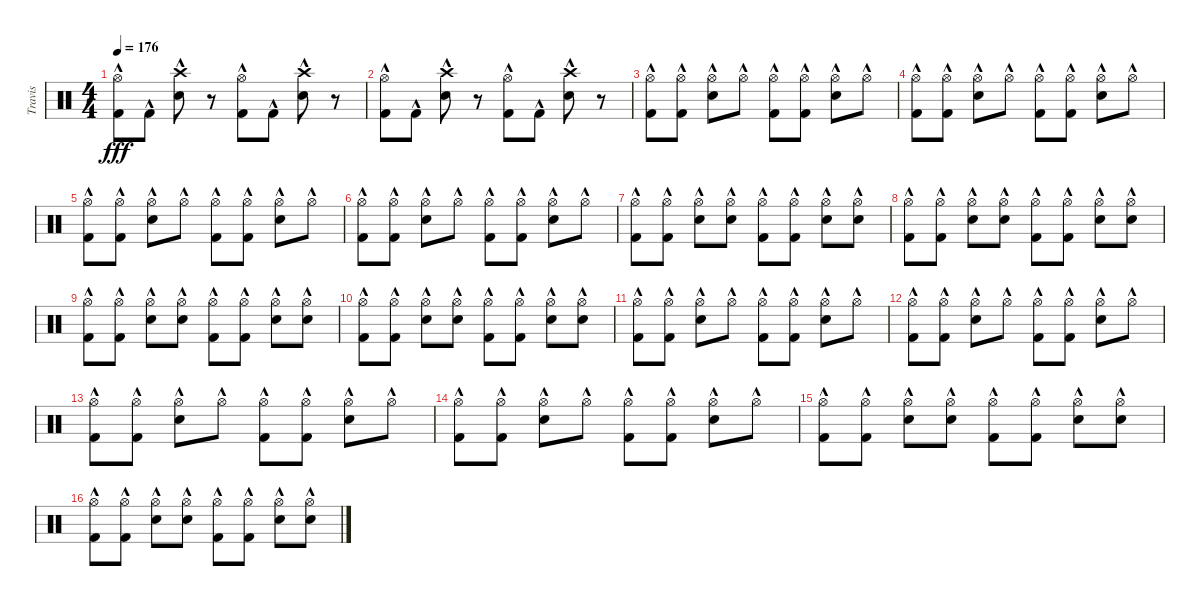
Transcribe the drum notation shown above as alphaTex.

\track ("Travis" "Travis") {instrument percussion}
\staff {score}
\articulation defaults
\ts (4 4)
\tempo 176
\clef neutral
\ks c
("Kick (hit) 2"{hac} "Hi-Hat (open)"{hac}).8{dy fff} "Kick (hit) 2"{hac}.8 ("Snare (hit) 2"{hac} "Crash high (hit)"{hac}).8 r.8 ("Kick (hit) 2"{hac} "Hi-Hat (open)"{hac}).8 "Kick (hit) 2"{hac}.8 ("Snare (hit) 2"{hac} "Crash high (hit)"{hac}).8 r.8 |
("Kick (hit) 2"{hac} "Hi-Hat (open)"{hac}).8 "Kick (hit) 2"{hac}.8 ("Snare (hit) 2"{hac} "Crash high (hit)"{hac}).8 r.8 ("Kick (hit) 2"{hac} "Hi-Hat (open)"{hac}).8 "Kick (hit) 2"{hac}.8 ("Snare (hit) 2"{hac} "Crash high (hit)"{hac}).8 r.8 |
("Kick (hit) 2"{hac} "Hi-Hat (open)"{hac}).8 ("Kick (hit) 2"{hac} "Hi-Hat (open)"{hac}).8 ("Snare (hit) 2"{hac} "Hi-Hat (open)"{hac}).8 "Hi-Hat (open)"{hac}.8 ("Kick (hit) 2"{hac} "Hi-Hat (open)"{hac}).8 ("Kick (hit) 2"{hac} "Hi-Hat (open)"{hac}).8 ("Snare (hit) 2"{hac} "Hi-Hat (open)"{hac}).8 "Hi-Hat (open)"{hac}.8 |
("Kick (hit) 2"{hac} "Hi-Hat (open)"{hac}).8 ("Kick (hit) 2"{hac} "Hi-Hat (open)"{hac}).8 ("Snare (hit) 2"{hac} "Hi-Hat (open)"{hac}).8 "Hi-Hat (open)"{hac}.8 ("Kick (hit) 2"{hac} "Hi-Hat (open)"{hac}).8 ("Kick (hit) 2"{hac} "Hi-Hat (open)"{hac}).8 ("Snare (hit) 2"{hac} "Hi-Hat (open)"{hac}).8 "Hi-Hat (open)"{hac}.8 |
("Kick (hit) 2"{hac} "Hi-Hat (open)"{hac}).8 ("Kick (hit) 2"{hac} "Hi-Hat (open)"{hac}).8 ("Snare (hit) 2"{hac} "Hi-Hat (open)"{hac}).8 "Hi-Hat (open)"{hac}.8 ("Kick (hit) 2"{hac} "Hi-Hat (open)"{hac}).8 ("Kick (hit) 2"{hac} "Hi-Hat (open)"{hac}).8 ("Snare (hit) 2"{hac} "Hi-Hat (open)"{hac}).8 "Hi-Hat (open)"{hac}.8 |
("Kick (hit) 2"{hac} "Hi-Hat (open)"{hac}).8 ("Kick (hit) 2"{hac} "Hi-Hat (open)"{hac}).8 ("Snare (hit) 2"{hac} "Hi-Hat (open)"{hac}).8 "Hi-Hat (open)"{hac}.8 ("Kick (hit) 2"{hac} "Hi-Hat (open)"{hac}).8 ("Kick (hit) 2"{hac} "Hi-Hat (open)"{hac}).8 ("Snare (hit) 2"{hac} "Hi-Hat (open)"{hac}).8 "Hi-Hat (open)"{hac}.8 |
("Kick (hit) 2"{hac} "Hi-Hat (open)"{hac}).8 ("Kick (hit) 2"{hac} "Hi-Hat (open)"{hac}).8 ("Snare (hit) 2"{hac} "Hi-Hat (open)"{hac}).8 ("Snare (hit) 2"{hac} "Hi-Hat (open)"{hac}).8 ("Kick (hit) 2"{hac} "Hi-Hat (open)"{hac}).8 ("Kick (hit) 2"{hac} "Hi-Hat (open)"{hac}).8 ("Snare (hit) 2"{hac} "Hi-Hat (open)"{hac}).8 ("Snare (hit) 2"{hac} "Hi-Hat (open)"{hac}).8 |
("Kick (hit) 2"{hac} "Hi-Hat (open)"{hac}).8 ("Kick (hit) 2"{hac} "Hi-Hat (open)"{hac}).8 ("Snare (hit) 2"{hac} "Hi-Hat (open)"{hac}).8 ("Snare (hit) 2"{hac} "Hi-Hat (open)"{hac}).8 ("Kick (hit) 2"{hac} "Hi-Hat (open)"{hac}).8 ("Kick (hit) 2"{hac} "Hi-Hat (open)"{hac}).8 ("Snare (hit) 2"{hac} "Hi-Hat (open)"{hac}).8 ("Snare (hit) 2"{hac} "Hi-Hat (open)"{hac}).8 |
("Kick (hit) 2"{hac} "Hi-Hat (open)"{hac}).8 ("Kick (hit) 2"{hac} "Hi-Hat (open)"{hac}).8 ("Snare (hit) 2"{hac} "Hi-Hat (open)"{hac}).8 ("Snare (hit) 2"{hac} "Hi-Hat (open)"{hac}).8 ("Kick (hit) 2"{hac} "Hi-Hat (open)"{hac}).8 ("Kick (hit) 2"{hac} "Hi-Hat (open)"{hac}).8 ("Snare (hit) 2"{hac} "Hi-Hat (open)"{hac}).8 ("Snare (hit) 2"{hac} "Hi-Hat (open)"{hac}).8 |
("Kick (hit) 2"{hac} "Hi-Hat (open)"{hac}).8 ("Kick (hit) 2"{hac} "Hi-Hat (open)"{hac}).8 ("Snare (hit) 2"{hac} "Hi-Hat (open)"{hac}).8 ("Snare (hit) 2"{hac} "Hi-Hat (open)"{hac}).8 ("Kick (hit) 2"{hac} "Hi-Hat (open)"{hac}).8 ("Kick (hit) 2"{hac} "Hi-Hat (open)"{hac}).8 ("Snare (hit) 2"{hac} "Hi-Hat (open)"{hac}).8 ("Snare (hit) 2"{hac} "Hi-Hat (open)"{hac}).8 |
("Kick (hit) 2"{hac} "Hi-Hat (open)"{hac}).8 ("Kick (hit) 2"{hac} "Hi-Hat (open)"{hac}).8 ("Snare (hit) 2"{hac} "Hi-Hat (open)"{hac}).8 "Hi-Hat (open)"{hac}.8 ("Kick (hit) 2"{hac} "Hi-Hat (open)"{hac}).8 ("Kick (hit) 2"{hac} "Hi-Hat (open)"{hac}).8 ("Snare (hit) 2"{hac} "Hi-Hat (open)"{hac}).8 "Hi-Hat (open)"{hac}.8 |
("Kick (hit) 2"{hac} "Hi-Hat (open)"{hac}).8 ("Kick (hit) 2"{hac} "Hi-Hat (open)"{hac}).8 ("Snare (hit) 2"{hac} "Hi-Hat (open)"{hac}).8 "Hi-Hat (open)"{hac}.8 ("Kick (hit) 2"{hac} "Hi-Hat (open)"{hac}).8 ("Kick (hit) 2"{hac} "Hi-Hat (open)"{hac}).8 ("Snare (hit) 2"{hac} "Hi-Hat (open)"{hac}).8 "Hi-Hat (open)"{hac}.8 |
("Kick (hit) 2"{hac} "Hi-Hat (open)"{hac}).8 ("Kick (hit) 2"{hac} "Hi-Hat (open)"{hac}).8 ("Snare (hit) 2"{hac} "Hi-Hat (open)"{hac}).8 "Hi-Hat (open)"{hac}.8 ("Kick (hit) 2"{hac} "Hi-Hat (open)"{hac}).8 ("Kick (hit) 2"{hac} "Hi-Hat (open)"{hac}).8 ("Snare (hit) 2"{hac} "Hi-Hat (open)"{hac}).8 "Hi-Hat (open)"{hac}.8 |
("Kick (hit) 2"{hac} "Hi-Hat (open)"{hac}).8 ("Kick (hit) 2"{hac} "Hi-Hat (open)"{hac}).8 ("Snare (hit) 2"{hac} "Hi-Hat (open)"{hac}).8 "Hi-Hat (open)"{hac}.8 ("Kick (hit) 2"{hac} "Hi-Hat (open)"{hac}).8 ("Kick (hit) 2"{hac} "Hi-Hat (open)"{hac}).8 ("Snare (hit) 2"{hac} "Hi-Hat (open)"{hac}).8 "Hi-Hat (open)"{hac}.8 |
("Kick (hit) 2"{hac} "Hi-Hat (open)"{hac}).8 ("Kick (hit) 2"{hac} "Hi-Hat (open)"{hac}).8 ("Snare (hit) 2"{hac} "Hi-Hat (open)"{hac}).8 ("Snare (hit) 2"{hac} "Hi-Hat (open)"{hac}).8 ("Kick (hit) 2"{hac} "Hi-Hat (open)"{hac}).8 ("Kick (hit) 2"{hac} "Hi-Hat (open)"{hac}).8 ("Snare (hit) 2"{hac} "Hi-Hat (open)"{hac}).8 ("Snare (hit) 2"{hac} "Hi-Hat (open)"{hac}).8 |
("Kick (hit) 2"{hac} "Hi-Hat (open)"{hac}).8 ("Kick (hit) 2"{hac} "Hi-Hat (open)"{hac}).8 ("Snare (hit) 2"{hac} "Hi-Hat (open)"{hac}).8 ("Snare (hit) 2"{hac} "Hi-Hat (open)"{hac}).8 ("Kick (hit) 2"{hac} "Hi-Hat (open)"{hac}).8 ("Kick (hit) 2"{hac} "Hi-Hat (open)"{hac}).8 ("Snare (hit) 2"{hac} "Hi-Hat (open)"{hac}).8 ("Snare (hit) 2"{hac} "Hi-Hat (open)"{hac}).8
